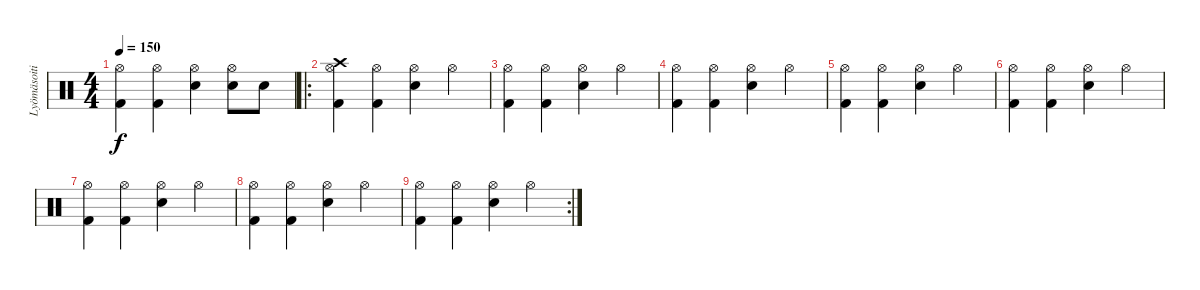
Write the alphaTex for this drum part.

\track ("Lyömäsoitin" "Lyömäsoiti") {instrument percussion}
\staff {score}
\articulation defaults
\ts (4 4)
\tempo 150
\clef neutral
\ks c
("Hi-Hat (open)" "Kick (hit) 2").4{dy f} ("Hi-Hat (open)" "Kick (hit) 2").4 ("Hi-Hat (open)" "Snare (hit) 2").4 ("Hi-Hat (open)" "Snare (hit) 2").8 "Snare (hit) 2".8 |
\ro
("Crash high (hit)" "Hi-Hat (open)" "Kick (hit) 2").4 ("Hi-Hat (open)" "Kick (hit) 2").4 ("Hi-Hat (open)" "Snare (hit) 2").4 "Hi-Hat (open)".4 |
("Hi-Hat (open)" "Kick (hit) 2").4 ("Hi-Hat (open)" "Kick (hit) 2").4 ("Hi-Hat (open)" "Snare (hit) 2").4 "Hi-Hat (open)".4 |
("Hi-Hat (open)" "Kick (hit) 2").4 ("Hi-Hat (open)" "Kick (hit) 2").4 ("Hi-Hat (open)" "Snare (hit) 2").4 "Hi-Hat (open)".4 |
("Hi-Hat (open)" "Kick (hit) 2").4 ("Hi-Hat (open)" "Kick (hit) 2").4 ("Hi-Hat (open)" "Snare (hit) 2").4 "Hi-Hat (open)".4 |
("Hi-Hat (open)" "Kick (hit) 2").4 ("Hi-Hat (open)" "Kick (hit) 2").4 ("Hi-Hat (open)" "Snare (hit) 2").4 "Hi-Hat (open)".4 |
("Hi-Hat (open)" "Kick (hit) 2").4 ("Hi-Hat (open)" "Kick (hit) 2").4 ("Hi-Hat (open)" "Snare (hit) 2").4 "Hi-Hat (open)".4 |
("Hi-Hat (open)" "Kick (hit) 2").4 ("Hi-Hat (open)" "Kick (hit) 2").4 ("Hi-Hat (open)" "Snare (hit) 2").4 "Hi-Hat (open)".4 |
\rc 2
("Hi-Hat (open)" "Kick (hit) 2").4 ("Hi-Hat (open)" "Kick (hit) 2").4 ("Hi-Hat (open)" "Snare (hit) 2").4 "Hi-Hat (open)".4
